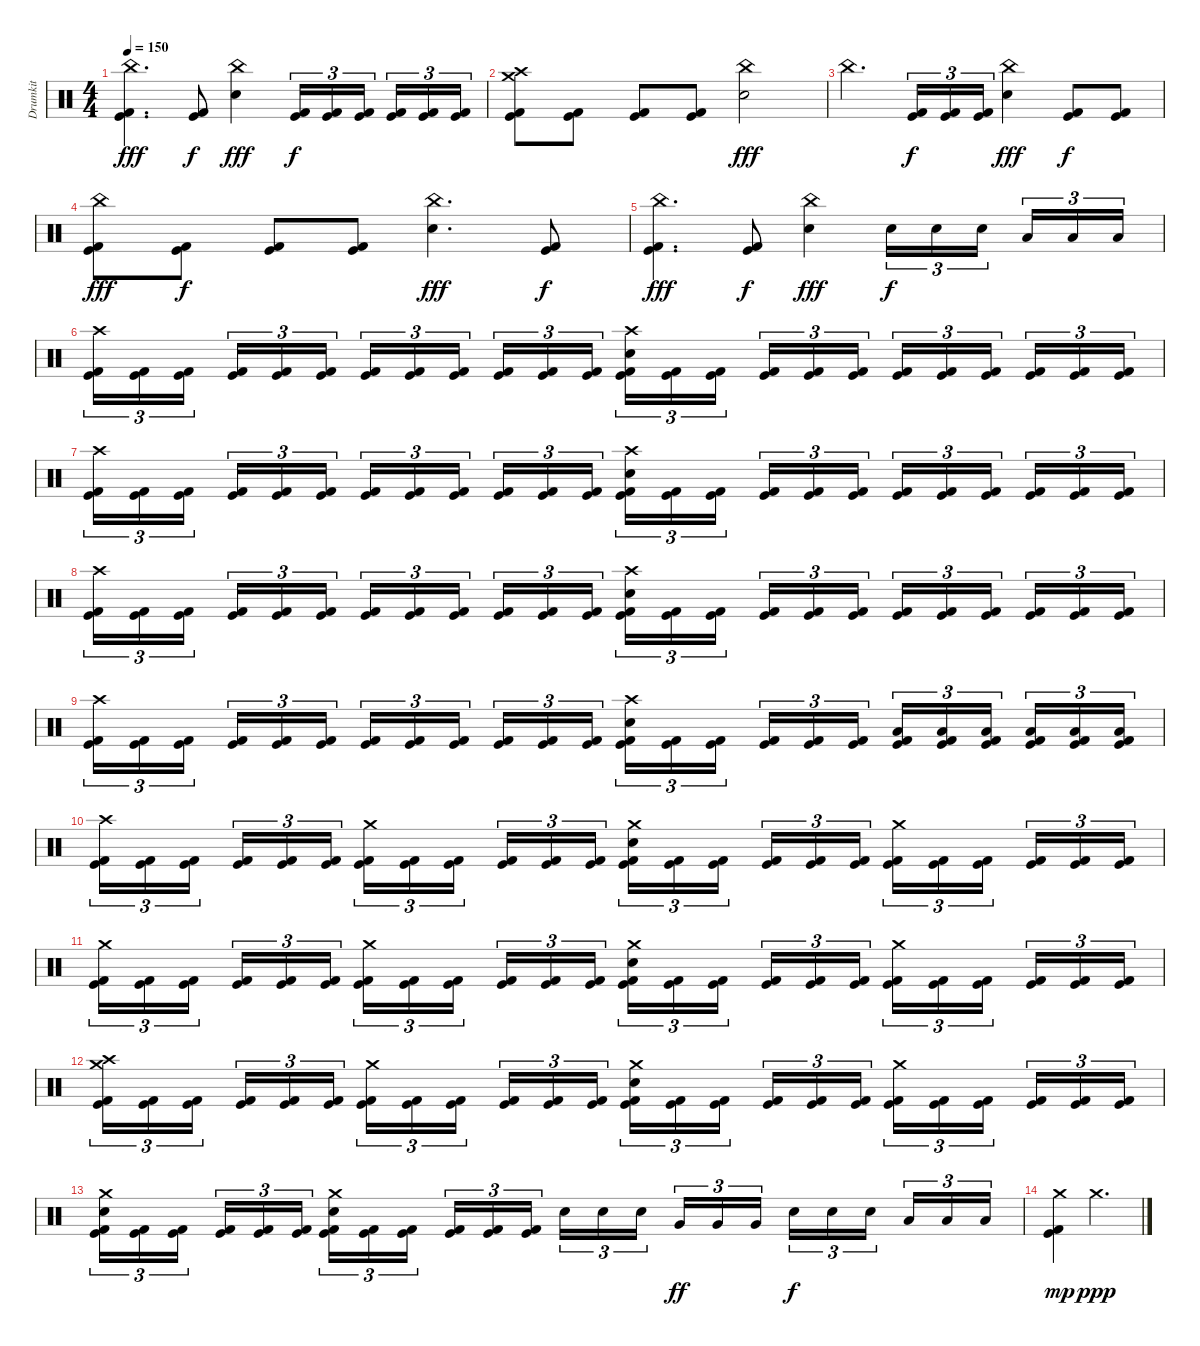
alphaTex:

\track ("Drumkit" "Drumkit") {instrument percussion}
\staff {score}
\articulation defaults
\ts (4 4)
\tempo 150
\clef neutral
\ks c
("China (hit)" "Kick (hit)" "Kick (hit) 2").4{d dy fff} ("Kick (hit)" "Kick (hit) 2").8{dy f} ("China (hit)" "Electric Snare (hit)").4{dy fff} ("Kick (hit)" "Kick (hit) 2").16{tu (3 2) dy f} ("Kick (hit)" "Kick (hit) 2").16{tu (3 2)} ("Kick (hit)" "Kick (hit) 2").16{tu (3 2) beam splitsecondary} ("Kick (hit)" "Kick (hit) 2").16{tu (3 2)} ("Kick (hit)" "Kick (hit) 2").16{tu (3 2)} ("Kick (hit)" "Kick (hit) 2").16{tu (3 2)} |
("Crash high (hit)" "Crash medium (hit)" "Kick (hit)" "Kick (hit) 2").8 ("Kick (hit)" "Kick (hit) 2").8 ("Kick (hit)" "Kick (hit) 2").8 ("Kick (hit)" "Kick (hit) 2").8 ("China (hit)" "Electric Snare (hit)").2{dy fff} |
"China (hit)".4{d} ("Kick (hit)" "Kick (hit) 2").16{tu (3 2) dy f} ("Kick (hit)" "Kick (hit) 2").16{tu (3 2)} ("Kick (hit)" "Kick (hit) 2").16{tu (3 2)} ("China (hit)" "Electric Snare (hit)").4{dy fff} ("Kick (hit)" "Kick (hit) 2").8{dy f} ("Kick (hit)" "Kick (hit) 2").8 |
("China (hit)" "Kick (hit)" "Kick (hit) 2").8{dy fff} ("Kick (hit)" "Kick (hit) 2").8{dy f} ("Kick (hit)" "Kick (hit) 2").8 ("Kick (hit)" "Kick (hit) 2").8 ("China (hit)" "Electric Snare (hit)").4{d dy fff} ("Kick (hit)" "Kick (hit) 2").8{dy f} |
("China (hit)" "Kick (hit)" "Kick (hit) 2").4{d dy fff} ("Kick (hit)" "Kick (hit) 2").8{dy f} ("China (hit)" "Electric Snare (hit)").4{dy fff} "Electric Snare (hit)".16{tu (3 2) dy f} "Electric Snare (hit)".16{tu (3 2)} "Electric Snare (hit)".16{tu (3 2) beam splitsecondary} "Low Tom (hit)".16{tu (3 2)} "Low Tom (hit)".16{tu (3 2)} "Low Tom (hit)".16{tu (3 2)} |
("Crash high (hit)" "Kick (hit)" "Kick (hit) 2").16{tu (3 2)} ("Kick (hit)" "Kick (hit) 2").16{tu (3 2)} ("Kick (hit)" "Kick (hit) 2").16{tu (3 2) beam splitsecondary} ("Kick (hit)" "Kick (hit) 2").16{tu (3 2)} ("Kick (hit)" "Kick (hit) 2").16{tu (3 2)} ("Kick (hit)" "Kick (hit) 2").16{tu (3 2)} ("Kick (hit)" "Kick (hit) 2").16{tu (3 2)} ("Kick (hit)" "Kick (hit) 2").16{tu (3 2)} ("Kick (hit)" "Kick (hit) 2").16{tu (3 2) beam splitsecondary} ("Kick (hit)" "Kick (hit) 2").16{tu (3 2)} ("Kick (hit)" "Kick (hit) 2").16{tu (3 2)} ("Kick (hit)" "Kick (hit) 2").16{tu (3 2)} ("Crash high (hit)" "Electric Snare (hit)" "Kick (hit)" "Kick (hit) 2").16{tu (3 2)} ("Kick (hit)" "Kick (hit) 2").16{tu (3 2)} ("Kick (hit)" "Kick (hit) 2").16{tu (3 2) beam splitsecondary} ("Kick (hit)" "Kick (hit) 2").16{tu (3 2)} ("Kick (hit)" "Kick (hit) 2").16{tu (3 2)} ("Kick (hit)" "Kick (hit) 2").16{tu (3 2)} ("Kick (hit)" "Kick (hit) 2").16{tu (3 2)} ("Kick (hit)" "Kick (hit) 2").16{tu (3 2)} ("Kick (hit)" "Kick (hit) 2").16{tu (3 2) beam splitsecondary} ("Kick (hit)" "Kick (hit) 2").16{tu (3 2)} ("Kick (hit)" "Kick (hit) 2").16{tu (3 2)} ("Kick (hit)" "Kick (hit) 2").16{tu (3 2)} |
("Crash high (hit)" "Kick (hit)" "Kick (hit) 2").16{tu (3 2)} ("Kick (hit)" "Kick (hit) 2").16{tu (3 2)} ("Kick (hit)" "Kick (hit) 2").16{tu (3 2) beam splitsecondary} ("Kick (hit)" "Kick (hit) 2").16{tu (3 2)} ("Kick (hit)" "Kick (hit) 2").16{tu (3 2)} ("Kick (hit)" "Kick (hit) 2").16{tu (3 2)} ("Kick (hit)" "Kick (hit) 2").16{tu (3 2)} ("Kick (hit)" "Kick (hit) 2").16{tu (3 2)} ("Kick (hit)" "Kick (hit) 2").16{tu (3 2) beam splitsecondary} ("Kick (hit)" "Kick (hit) 2").16{tu (3 2)} ("Kick (hit)" "Kick (hit) 2").16{tu (3 2)} ("Kick (hit)" "Kick (hit) 2").16{tu (3 2)} ("Crash high (hit)" "Electric Snare (hit)" "Kick (hit)" "Kick (hit) 2").16{tu (3 2)} ("Kick (hit)" "Kick (hit) 2").16{tu (3 2)} ("Kick (hit)" "Kick (hit) 2").16{tu (3 2) beam splitsecondary} ("Kick (hit)" "Kick (hit) 2").16{tu (3 2)} ("Kick (hit)" "Kick (hit) 2").16{tu (3 2)} ("Kick (hit)" "Kick (hit) 2").16{tu (3 2)} ("Kick (hit)" "Kick (hit) 2").16{tu (3 2)} ("Kick (hit)" "Kick (hit) 2").16{tu (3 2)} ("Kick (hit)" "Kick (hit) 2").16{tu (3 2) beam splitsecondary} ("Kick (hit)" "Kick (hit) 2").16{tu (3 2)} ("Kick (hit)" "Kick (hit) 2").16{tu (3 2)} ("Kick (hit)" "Kick (hit) 2").16{tu (3 2)} |
("Crash high (hit)" "Kick (hit)" "Kick (hit) 2").16{tu (3 2)} ("Kick (hit)" "Kick (hit) 2").16{tu (3 2)} ("Kick (hit)" "Kick (hit) 2").16{tu (3 2) beam splitsecondary} ("Kick (hit)" "Kick (hit) 2").16{tu (3 2)} ("Kick (hit)" "Kick (hit) 2").16{tu (3 2)} ("Kick (hit)" "Kick (hit) 2").16{tu (3 2)} ("Kick (hit)" "Kick (hit) 2").16{tu (3 2)} ("Kick (hit)" "Kick (hit) 2").16{tu (3 2)} ("Kick (hit)" "Kick (hit) 2").16{tu (3 2) beam splitsecondary} ("Kick (hit)" "Kick (hit) 2").16{tu (3 2)} ("Kick (hit)" "Kick (hit) 2").16{tu (3 2)} ("Kick (hit)" "Kick (hit) 2").16{tu (3 2)} ("Crash high (hit)" "Electric Snare (hit)" "Kick (hit)" "Kick (hit) 2").16{tu (3 2)} ("Kick (hit)" "Kick (hit) 2").16{tu (3 2)} ("Kick (hit)" "Kick (hit) 2").16{tu (3 2) beam splitsecondary} ("Kick (hit)" "Kick (hit) 2").16{tu (3 2)} ("Kick (hit)" "Kick (hit) 2").16{tu (3 2)} ("Kick (hit)" "Kick (hit) 2").16{tu (3 2)} ("Kick (hit)" "Kick (hit) 2").16{tu (3 2)} ("Kick (hit)" "Kick (hit) 2").16{tu (3 2)} ("Kick (hit)" "Kick (hit) 2").16{tu (3 2) beam splitsecondary} ("Kick (hit)" "Kick (hit) 2").16{tu (3 2)} ("Kick (hit)" "Kick (hit) 2").16{tu (3 2)} ("Kick (hit)" "Kick (hit) 2").16{tu (3 2)} |
("Crash high (hit)" "Kick (hit)" "Kick (hit) 2").16{tu (3 2)} ("Kick (hit)" "Kick (hit) 2").16{tu (3 2)} ("Kick (hit)" "Kick (hit) 2").16{tu (3 2) beam splitsecondary} ("Kick (hit)" "Kick (hit) 2").16{tu (3 2)} ("Kick (hit)" "Kick (hit) 2").16{tu (3 2)} ("Kick (hit)" "Kick (hit) 2").16{tu (3 2)} ("Kick (hit)" "Kick (hit) 2").16{tu (3 2)} ("Kick (hit)" "Kick (hit) 2").16{tu (3 2)} ("Kick (hit)" "Kick (hit) 2").16{tu (3 2) beam splitsecondary} ("Kick (hit)" "Kick (hit) 2").16{tu (3 2)} ("Kick (hit)" "Kick (hit) 2").16{tu (3 2)} ("Kick (hit)" "Kick (hit) 2").16{tu (3 2)} ("Crash high (hit)" "Electric Snare (hit)" "Kick (hit)" "Kick (hit) 2").16{tu (3 2)} ("Kick (hit)" "Kick (hit) 2").16{tu (3 2)} ("Kick (hit)" "Kick (hit) 2").16{tu (3 2) beam splitsecondary} ("Kick (hit)" "Kick (hit) 2").16{tu (3 2)} ("Kick (hit)" "Kick (hit) 2").16{tu (3 2)} ("Kick (hit)" "Kick (hit) 2").16{tu (3 2)} ("Low Tom (hit)" "Kick (hit)" "Kick (hit) 2").16{tu (3 2)} ("Low Tom (hit)" "Kick (hit)" "Kick (hit) 2").16{tu (3 2)} ("Low Tom (hit)" "Kick (hit)" "Kick (hit) 2").16{tu (3 2) beam splitsecondary} ("Low Tom (hit)" "Kick (hit)" "Kick (hit) 2").16{tu (3 2)} ("Low Tom (hit)" "Kick (hit)" "Kick (hit) 2").16{tu (3 2)} ("Low Tom (hit)" "Kick (hit)" "Kick (hit) 2").16{tu (3 2)} |
("Crash high (hit)" "Kick (hit)" "Kick (hit) 2").16{tu (3 2)} ("Kick (hit)" "Kick (hit) 2").16{tu (3 2)} ("Kick (hit)" "Kick (hit) 2").16{tu (3 2) beam splitsecondary} ("Kick (hit)" "Kick (hit) 2").16{tu (3 2)} ("Kick (hit)" "Kick (hit) 2").16{tu (3 2)} ("Kick (hit)" "Kick (hit) 2").16{tu (3 2)} ("Crash medium (hit)" "Kick (hit)" "Kick (hit) 2").16{tu (3 2)} ("Kick (hit)" "Kick (hit) 2").16{tu (3 2)} ("Kick (hit)" "Kick (hit) 2").16{tu (3 2) beam splitsecondary} ("Kick (hit)" "Kick (hit) 2").16{tu (3 2)} ("Kick (hit)" "Kick (hit) 2").16{tu (3 2)} ("Kick (hit)" "Kick (hit) 2").16{tu (3 2)} ("Crash medium (hit)" "Electric Snare (hit)" "Kick (hit)" "Kick (hit) 2").16{tu (3 2)} ("Kick (hit)" "Kick (hit) 2").16{tu (3 2)} ("Kick (hit)" "Kick (hit) 2").16{tu (3 2) beam splitsecondary} ("Kick (hit)" "Kick (hit) 2").16{tu (3 2)} ("Kick (hit)" "Kick (hit) 2").16{tu (3 2)} ("Kick (hit)" "Kick (hit) 2").16{tu (3 2)} ("Crash medium (hit)" "Kick (hit)" "Kick (hit) 2").16{tu (3 2)} ("Kick (hit)" "Kick (hit) 2").16{tu (3 2)} ("Kick (hit)" "Kick (hit) 2").16{tu (3 2) beam splitsecondary} ("Kick (hit)" "Kick (hit) 2").16{tu (3 2)} ("Kick (hit)" "Kick (hit) 2").16{tu (3 2)} ("Kick (hit)" "Kick (hit) 2").16{tu (3 2)} |
("Crash medium (hit)" "Kick (hit)" "Kick (hit) 2").16{tu (3 2)} ("Kick (hit)" "Kick (hit) 2").16{tu (3 2)} ("Kick (hit)" "Kick (hit) 2").16{tu (3 2) beam splitsecondary} ("Kick (hit)" "Kick (hit) 2").16{tu (3 2)} ("Kick (hit)" "Kick (hit) 2").16{tu (3 2)} ("Kick (hit)" "Kick (hit) 2").16{tu (3 2)} ("Crash medium (hit)" "Kick (hit)" "Kick (hit) 2").16{tu (3 2)} ("Kick (hit)" "Kick (hit) 2").16{tu (3 2)} ("Kick (hit)" "Kick (hit) 2").16{tu (3 2) beam splitsecondary} ("Kick (hit)" "Kick (hit) 2").16{tu (3 2)} ("Kick (hit)" "Kick (hit) 2").16{tu (3 2)} ("Kick (hit)" "Kick (hit) 2").16{tu (3 2)} ("Crash medium (hit)" "Electric Snare (hit)" "Kick (hit)" "Kick (hit) 2").16{tu (3 2)} ("Kick (hit)" "Kick (hit) 2").16{tu (3 2)} ("Kick (hit)" "Kick (hit) 2").16{tu (3 2) beam splitsecondary} ("Kick (hit)" "Kick (hit) 2").16{tu (3 2)} ("Kick (hit)" "Kick (hit) 2").16{tu (3 2)} ("Kick (hit)" "Kick (hit) 2").16{tu (3 2)} ("Crash medium (hit)" "Kick (hit)" "Kick (hit) 2").16{tu (3 2)} ("Kick (hit)" "Kick (hit) 2").16{tu (3 2)} ("Kick (hit)" "Kick (hit) 2").16{tu (3 2) beam splitsecondary} ("Kick (hit)" "Kick (hit) 2").16{tu (3 2)} ("Kick (hit)" "Kick (hit) 2").16{tu (3 2)} ("Kick (hit)" "Kick (hit) 2").16{tu (3 2)} |
("Crash high (hit)" "Crash medium (hit)" "Kick (hit)" "Kick (hit) 2").16{tu (3 2)} ("Kick (hit)" "Kick (hit) 2").16{tu (3 2)} ("Kick (hit)" "Kick (hit) 2").16{tu (3 2) beam splitsecondary} ("Kick (hit)" "Kick (hit) 2").16{tu (3 2)} ("Kick (hit)" "Kick (hit) 2").16{tu (3 2)} ("Kick (hit)" "Kick (hit) 2").16{tu (3 2)} ("Crash medium (hit)" "Kick (hit)" "Kick (hit) 2").16{tu (3 2)} ("Kick (hit)" "Kick (hit) 2").16{tu (3 2)} ("Kick (hit)" "Kick (hit) 2").16{tu (3 2) beam splitsecondary} ("Kick (hit)" "Kick (hit) 2").16{tu (3 2)} ("Kick (hit)" "Kick (hit) 2").16{tu (3 2)} ("Kick (hit)" "Kick (hit) 2").16{tu (3 2)} ("Crash medium (hit)" "Electric Snare (hit)" "Kick (hit)" "Kick (hit) 2").16{tu (3 2)} ("Kick (hit)" "Kick (hit) 2").16{tu (3 2)} ("Kick (hit)" "Kick (hit) 2").16{tu (3 2) beam splitsecondary} ("Kick (hit)" "Kick (hit) 2").16{tu (3 2)} ("Kick (hit)" "Kick (hit) 2").16{tu (3 2)} ("Kick (hit)" "Kick (hit) 2").16{tu (3 2)} ("Crash medium (hit)" "Kick (hit)" "Kick (hit) 2").16{tu (3 2)} ("Kick (hit)" "Kick (hit) 2").16{tu (3 2)} ("Kick (hit)" "Kick (hit) 2").16{tu (3 2) beam splitsecondary} ("Kick (hit)" "Kick (hit) 2").16{tu (3 2)} ("Kick (hit)" "Kick (hit) 2").16{tu (3 2)} ("Kick (hit)" "Kick (hit) 2").16{tu (3 2)} |
("Crash medium (hit)" "Electric Snare (hit)" "Kick (hit)" "Kick (hit) 2").16{tu (3 2)} ("Kick (hit)" "Kick (hit) 2").16{tu (3 2)} ("Kick (hit)" "Kick (hit) 2").16{tu (3 2) beam splitsecondary} ("Kick (hit)" "Kick (hit) 2").16{tu (3 2)} ("Kick (hit)" "Kick (hit) 2").16{tu (3 2)} ("Kick (hit)" "Kick (hit) 2").16{tu (3 2)} ("Crash medium (hit)" "Electric Snare (hit)" "Kick (hit)" "Kick (hit) 2").16{tu (3 2)} ("Kick (hit)" "Kick (hit) 2").16{tu (3 2)} ("Kick (hit)" "Kick (hit) 2").16{tu (3 2) beam splitsecondary} ("Kick (hit)" "Kick (hit) 2").16{tu (3 2)} ("Kick (hit)" "Kick (hit) 2").16{tu (3 2)} ("Kick (hit)" "Kick (hit) 2").16{tu (3 2)} "Electric Snare (hit)".16{tu (3 2)} "Electric Snare (hit)".16{tu (3 2)} "Electric Snare (hit)".16{tu (3 2) beam splitsecondary} "Very Low Tom (hit)".16{tu (3 2) dy ff} "Very Low Tom (hit)".16{tu (3 2)} "Very Low Tom (hit)".16{tu (3 2)} "Electric Snare (hit)".16{tu (3 2) dy f} "Electric Snare (hit)".16{tu (3 2)} "Electric Snare (hit)".16{tu (3 2) beam splitsecondary} "Low Tom (hit)".16{tu (3 2)} "Low Tom (hit)".16{tu (3 2)} "Low Tom (hit)".16{tu (3 2)} |
("Crash medium (hit)" "Kick (hit)" "Kick (hit) 2").4{dy mp} "Crash medium (hit)".2{d dy ppp}
